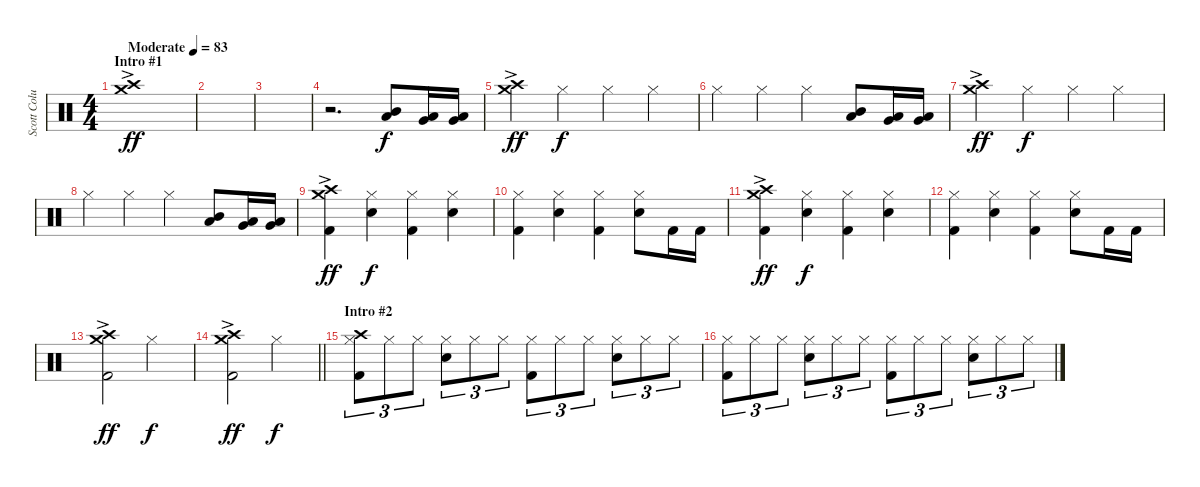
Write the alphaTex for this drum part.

\track ("Scott Columbus" "Scott Colu") {instrument percussion}
\staff {score}
\articulation defaults
\ts (4 4)
\section ("" "Intro #1")
\tempo (83 "Moderate")
\clef neutral
\ks c
("Crash medium (hit)"{ac} "Crash high (hit)"{ac}).1{dy ff} |
|
|
r.2{d} ("Mid Tom (hit)" "Low Tom (hit)").8{dy f} ("Low Tom (hit)" "Very Low Tom (hit)").16 ("Very Low Tom (hit)" "Low Floor Tom (hit)").16 |
("Crash medium (hit)"{ac} "Crash high (hit)"{ac}).4{dy ff} "Hi-Hat (closed)".4{dy f} "Hi-Hat (closed)".4 "Hi-Hat (closed)".4 |
"Hi-Hat (closed)".4 "Hi-Hat (closed)".4 "Hi-Hat (closed)".4 ("Mid Tom (hit)" "Low Tom (hit)").8 ("Low Tom (hit)" "Very Low Tom (hit)").16 ("Very Low Tom (hit)" "Low Floor Tom (hit)").16 |
("Crash medium (hit)"{ac} "Crash high (hit)"{ac}).4{dy ff} "Hi-Hat (closed)".4{dy f} "Hi-Hat (closed)".4 "Hi-Hat (closed)".4 |
"Hi-Hat (closed)".4 "Hi-Hat (closed)".4 "Hi-Hat (closed)".4 ("Mid Tom (hit)" "Low Tom (hit)").8 ("Low Tom (hit)" "Very Low Tom (hit)").16 ("Very Low Tom (hit)" "Low Floor Tom (hit)").16 |
("Kick (hit) 2" "Crash medium (hit)"{ac} "Crash high (hit)"{ac}).4{dy ff} ("Electric Snare (hit)" "Hi-Hat (closed)").4{dy f} ("Kick (hit) 2" "Hi-Hat (closed)").4 ("Electric Snare (hit)" "Hi-Hat (closed)").4 |
("Kick (hit) 2" "Hi-Hat (closed)").4 ("Electric Snare (hit)" "Hi-Hat (closed)").4 ("Kick (hit) 2" "Hi-Hat (closed)").4 ("Electric Snare (hit)" "Hi-Hat (closed)").8 "Kick (hit) 2".16 "Kick (hit) 2".16 |
("Kick (hit) 2" "Crash medium (hit)"{ac} "Crash high (hit)"{ac}).4{dy ff} ("Electric Snare (hit)" "Hi-Hat (closed)").4{dy f} ("Kick (hit) 2" "Hi-Hat (closed)").4 ("Electric Snare (hit)" "Hi-Hat (closed)").4 |
("Kick (hit) 2" "Hi-Hat (closed)").4 ("Electric Snare (hit)" "Hi-Hat (closed)").4 ("Kick (hit) 2" "Hi-Hat (closed)").4 ("Electric Snare (hit)" "Hi-Hat (closed)").8 "Kick (hit) 2".16 "Kick (hit) 2".16 |
("Crash medium (hit)"{ac} "Kick (hit) 2" "Crash high (hit)"{ac}).2{dy ff} "Hi-Hat (closed)".2{dy f} |
\barLineRight lightlight
("Crash medium (hit)"{ac} "Kick (hit) 2" "Crash high (hit)"{ac}).2{dy ff} "Hi-Hat (closed)".2{dy f} |
\section ("" "Intro #2")
("Kick (hit) 2" "Hi-Hat (closed)" "Crash high (hit)").8{tu (3 2)} "Hi-Hat (closed)".8{tu (3 2)} "Hi-Hat (closed)".8{tu (3 2)} ("Electric Snare (hit)" "Hi-Hat (closed)").8{tu (3 2)} "Hi-Hat (closed)".8{tu (3 2)} "Hi-Hat (closed)".8{tu (3 2)} ("Kick (hit) 2" "Hi-Hat (closed)").8{tu (3 2)} "Hi-Hat (closed)".8{tu (3 2)} "Hi-Hat (closed)".8{tu (3 2)} ("Electric Snare (hit)" "Hi-Hat (closed)").8{tu (3 2)} "Hi-Hat (closed)".8{tu (3 2)} "Hi-Hat (closed)".8{tu (3 2)} |
("Kick (hit) 2" "Hi-Hat (closed)").8{tu (3 2)} "Hi-Hat (closed)".8{tu (3 2)} "Hi-Hat (closed)".8{tu (3 2)} ("Electric Snare (hit)" "Hi-Hat (closed)").8{tu (3 2)} "Hi-Hat (closed)".8{tu (3 2)} "Hi-Hat (closed)".8{tu (3 2)} ("Kick (hit) 2" "Hi-Hat (closed)").8{tu (3 2)} "Hi-Hat (closed)".8{tu (3 2)} "Hi-Hat (closed)".8{tu (3 2)} ("Electric Snare (hit)" "Hi-Hat (closed)").8{tu (3 2)} "Hi-Hat (closed)".8{tu (3 2)} "Hi-Hat (closed)".8{tu (3 2)}
